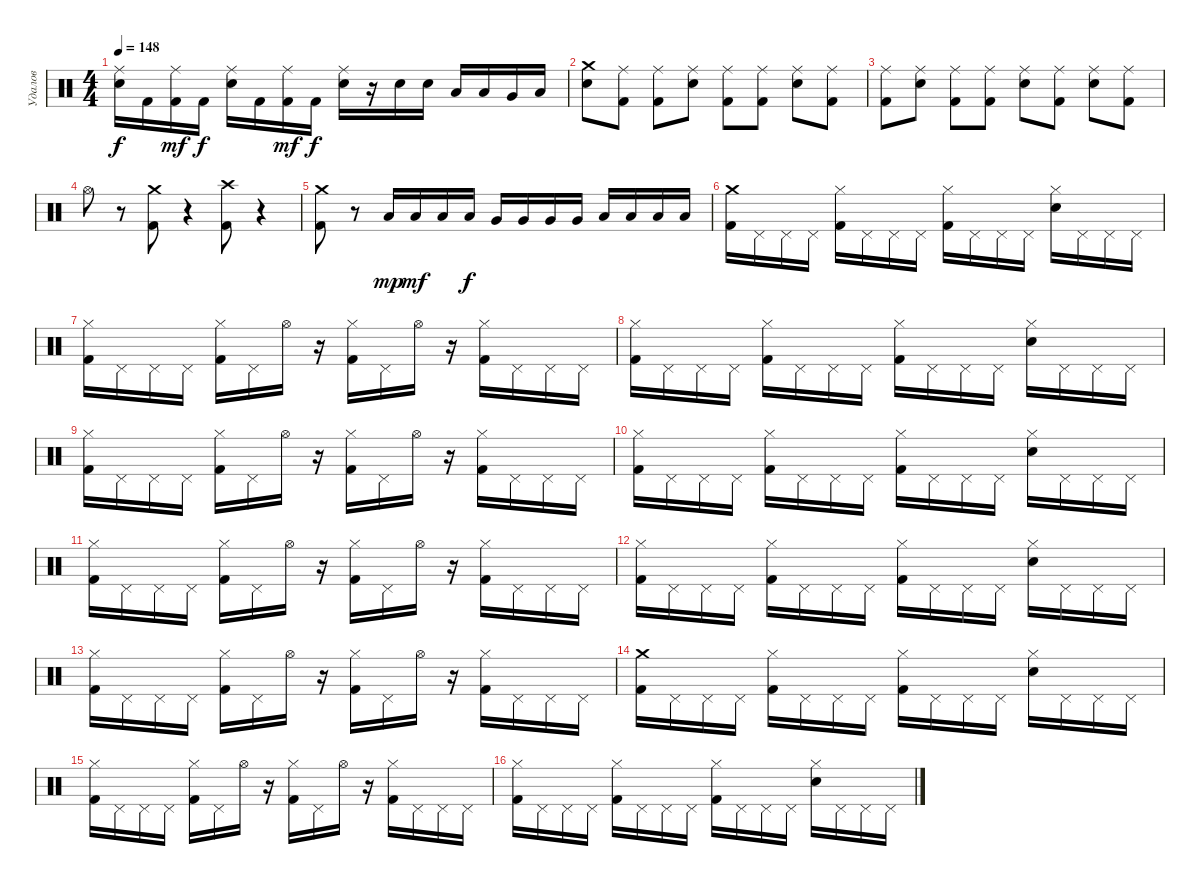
\track ("Удалов" "Удалов") {instrument percussion}
\staff {score}
\articulation defaults
\ts (4 4)
\tempo 148
\clef neutral
\ks c
("Snare (hit) 2" "Ride (middle)").16{dy f} "Kick (hit) 2".16 ("Ride (middle)" "Kick (hit) 2").16{dy mf} "Kick (hit) 2".16{dy f} ("Ride (middle)" "Snare (hit) 2").16 "Kick (hit) 2".16 ("Ride (middle)" "Kick (hit) 2").16{dy mf} "Kick (hit) 2".16{dy f} ("Snare (hit) 2" "Ride (middle)").16 r.16 "Snare (hit) 2".16 "Snare (hit) 2".16 "Low Tom (hit)".16 "Low Tom (hit)".16 "Very Low Tom (hit)".16 "Low Floor Tom (hit)".16 |
("Snare (hit) 2" "Crash medium (hit)").8 ("Ride (middle)" "Kick (hit) 2").8 ("Ride (middle)" "Kick (hit) 2").8 ("Ride (middle)" "Snare (hit) 2").8 ("Kick (hit) 2" "Ride (middle)").8 ("Kick (hit) 2" "Ride (middle)").8 ("Snare (hit) 2" "Ride (middle)").8 ("Kick (hit) 2" "Ride (middle)").8 |
("Ride (middle)" "Kick (hit) 2").8 ("Ride (middle)" "Snare (hit) 2").8 ("Ride (middle)" "Kick (hit) 2").8 ("Ride (middle)" "Kick (hit) 2").8 ("Ride (middle)" "Snare (hit) 2").8 ("Ride (middle)" "Kick (hit) 2").8 ("Ride (middle)" "Snare (hit) 2").8 ("Kick (hit) 2" "Ride (middle)").8 |
"Hi-Hat (open)".8 r.8 ("Kick (hit) 2" "Crash medium (hit)").8 r.4 ("Kick (hit) 2" "Crash high (hit)").8 r.4 |
("Kick (hit) 2" "Crash medium (hit)").8 r.8 "Low Tom (hit)".16{dy mp} "Low Tom (hit)".16{dy mf} "Low Tom (hit)".16 "Low Tom (hit)".16{dy f} "Very Low Tom (hit)".16 "Very Low Tom (hit)".16 "Very Low Tom (hit)".16 "Very Low Tom (hit)".16 "Low Floor Tom (hit)".16 "Low Floor Tom (hit)".16 "Low Floor Tom (hit)".16 "Low Floor Tom (hit)".16 |
("Kick (hit) 2" "Crash medium (hit)").16 "Pedal Hi-Hat (hit)".16 "Pedal Hi-Hat (hit)".16 "Pedal Hi-Hat (hit)".16 ("Kick (hit) 2" "Hi-Hat (closed)").16 "Pedal Hi-Hat (hit)".16 "Pedal Hi-Hat (hit)".16 "Pedal Hi-Hat (hit)".16 ("Kick (hit) 2" "Hi-Hat (closed)").16 "Pedal Hi-Hat (hit)".16 "Pedal Hi-Hat (hit)".16 "Pedal Hi-Hat (hit)".16 ("Hi-Hat (closed)" "Snare (hit) 2").16 "Pedal Hi-Hat (hit)".16 "Pedal Hi-Hat (hit)".16 "Pedal Hi-Hat (hit)".16 |
("Kick (hit) 2" "Hi-Hat (closed)").16 "Pedal Hi-Hat (hit)".16 "Pedal Hi-Hat (hit)".16 "Pedal Hi-Hat (hit)".16 ("Kick (hit) 2" "Hi-Hat (closed)").16 "Pedal Hi-Hat (hit)".16 "Hi-Hat (open)".16 r.16 ("Kick (hit) 2" "Hi-Hat (closed)").16 "Pedal Hi-Hat (hit)".16 "Hi-Hat (open)".16 r.16 ("Kick (hit) 2" "Hi-Hat (closed)").16 "Pedal Hi-Hat (hit)".16 "Pedal Hi-Hat (hit)".16 "Pedal Hi-Hat (hit)".16 |
("Kick (hit) 2" "Hi-Hat (closed)").16 "Pedal Hi-Hat (hit)".16 "Pedal Hi-Hat (hit)".16 "Pedal Hi-Hat (hit)".16 ("Kick (hit) 2" "Hi-Hat (closed)").16 "Pedal Hi-Hat (hit)".16 "Pedal Hi-Hat (hit)".16 "Pedal Hi-Hat (hit)".16 ("Kick (hit) 2" "Hi-Hat (closed)").16 "Pedal Hi-Hat (hit)".16 "Pedal Hi-Hat (hit)".16 "Pedal Hi-Hat (hit)".16 ("Hi-Hat (closed)" "Snare (hit) 2").16 "Pedal Hi-Hat (hit)".16 "Pedal Hi-Hat (hit)".16 "Pedal Hi-Hat (hit)".16 |
("Kick (hit) 2" "Hi-Hat (closed)").16 "Pedal Hi-Hat (hit)".16 "Pedal Hi-Hat (hit)".16 "Pedal Hi-Hat (hit)".16 ("Kick (hit) 2" "Hi-Hat (closed)").16 "Pedal Hi-Hat (hit)".16 "Hi-Hat (open)".16 r.16 ("Kick (hit) 2" "Hi-Hat (closed)").16 "Pedal Hi-Hat (hit)".16 "Hi-Hat (open)".16 r.16 ("Kick (hit) 2" "Hi-Hat (closed)").16 "Pedal Hi-Hat (hit)".16 "Pedal Hi-Hat (hit)".16 "Pedal Hi-Hat (hit)".16 |
("Kick (hit) 2" "Hi-Hat (closed)").16 "Pedal Hi-Hat (hit)".16 "Pedal Hi-Hat (hit)".16 "Pedal Hi-Hat (hit)".16 ("Kick (hit) 2" "Hi-Hat (closed)").16 "Pedal Hi-Hat (hit)".16 "Pedal Hi-Hat (hit)".16 "Pedal Hi-Hat (hit)".16 ("Kick (hit) 2" "Hi-Hat (closed)").16 "Pedal Hi-Hat (hit)".16 "Pedal Hi-Hat (hit)".16 "Pedal Hi-Hat (hit)".16 ("Hi-Hat (closed)" "Snare (hit) 2").16 "Pedal Hi-Hat (hit)".16 "Pedal Hi-Hat (hit)".16 "Pedal Hi-Hat (hit)".16 |
("Kick (hit) 2" "Hi-Hat (closed)").16 "Pedal Hi-Hat (hit)".16 "Pedal Hi-Hat (hit)".16 "Pedal Hi-Hat (hit)".16 ("Kick (hit) 2" "Hi-Hat (closed)").16 "Pedal Hi-Hat (hit)".16 "Hi-Hat (open)".16 r.16 ("Kick (hit) 2" "Hi-Hat (closed)").16 "Pedal Hi-Hat (hit)".16 "Hi-Hat (open)".16 r.16 ("Kick (hit) 2" "Hi-Hat (closed)").16 "Pedal Hi-Hat (hit)".16 "Pedal Hi-Hat (hit)".16 "Pedal Hi-Hat (hit)".16 |
("Kick (hit) 2" "Hi-Hat (closed)").16 "Pedal Hi-Hat (hit)".16 "Pedal Hi-Hat (hit)".16 "Pedal Hi-Hat (hit)".16 ("Kick (hit) 2" "Hi-Hat (closed)").16 "Pedal Hi-Hat (hit)".16 "Pedal Hi-Hat (hit)".16 "Pedal Hi-Hat (hit)".16 ("Kick (hit) 2" "Hi-Hat (closed)").16 "Pedal Hi-Hat (hit)".16 "Pedal Hi-Hat (hit)".16 "Pedal Hi-Hat (hit)".16 ("Hi-Hat (closed)" "Snare (hit) 2").16 "Pedal Hi-Hat (hit)".16 "Pedal Hi-Hat (hit)".16 "Pedal Hi-Hat (hit)".16 |
("Kick (hit) 2" "Hi-Hat (closed)").16 "Pedal Hi-Hat (hit)".16 "Pedal Hi-Hat (hit)".16 "Pedal Hi-Hat (hit)".16 ("Kick (hit) 2" "Hi-Hat (closed)").16 "Pedal Hi-Hat (hit)".16 "Hi-Hat (open)".16 r.16 ("Kick (hit) 2" "Hi-Hat (closed)").16 "Pedal Hi-Hat (hit)".16 "Hi-Hat (open)".16 r.16 ("Kick (hit) 2" "Hi-Hat (closed)").16 "Pedal Hi-Hat (hit)".16 "Pedal Hi-Hat (hit)".16 "Pedal Hi-Hat (hit)".16 |
("Kick (hit) 2" "Crash medium (hit)").16 "Pedal Hi-Hat (hit)".16 "Pedal Hi-Hat (hit)".16 "Pedal Hi-Hat (hit)".16 ("Kick (hit) 2" "Hi-Hat (closed)").16 "Pedal Hi-Hat (hit)".16 "Pedal Hi-Hat (hit)".16 "Pedal Hi-Hat (hit)".16 ("Kick (hit) 2" "Hi-Hat (closed)").16 "Pedal Hi-Hat (hit)".16 "Pedal Hi-Hat (hit)".16 "Pedal Hi-Hat (hit)".16 ("Hi-Hat (closed)" "Snare (hit) 2").16 "Pedal Hi-Hat (hit)".16 "Pedal Hi-Hat (hit)".16 "Pedal Hi-Hat (hit)".16 |
("Kick (hit) 2" "Hi-Hat (closed)").16 "Pedal Hi-Hat (hit)".16 "Pedal Hi-Hat (hit)".16 "Pedal Hi-Hat (hit)".16 ("Kick (hit) 2" "Hi-Hat (closed)").16 "Pedal Hi-Hat (hit)".16 "Hi-Hat (open)".16 r.16 ("Kick (hit) 2" "Hi-Hat (closed)").16 "Pedal Hi-Hat (hit)".16 "Hi-Hat (open)".16 r.16 ("Kick (hit) 2" "Hi-Hat (closed)").16 "Pedal Hi-Hat (hit)".16 "Pedal Hi-Hat (hit)".16 "Pedal Hi-Hat (hit)".16 |
("Kick (hit) 2" "Hi-Hat (closed)").16 "Pedal Hi-Hat (hit)".16 "Pedal Hi-Hat (hit)".16 "Pedal Hi-Hat (hit)".16 ("Kick (hit) 2" "Hi-Hat (closed)").16 "Pedal Hi-Hat (hit)".16 "Pedal Hi-Hat (hit)".16 "Pedal Hi-Hat (hit)".16 ("Kick (hit) 2" "Hi-Hat (closed)").16 "Pedal Hi-Hat (hit)".16 "Pedal Hi-Hat (hit)".16 "Pedal Hi-Hat (hit)".16 ("Hi-Hat (closed)" "Snare (hit) 2").16 "Pedal Hi-Hat (hit)".16 "Pedal Hi-Hat (hit)".16 "Pedal Hi-Hat (hit)".16
